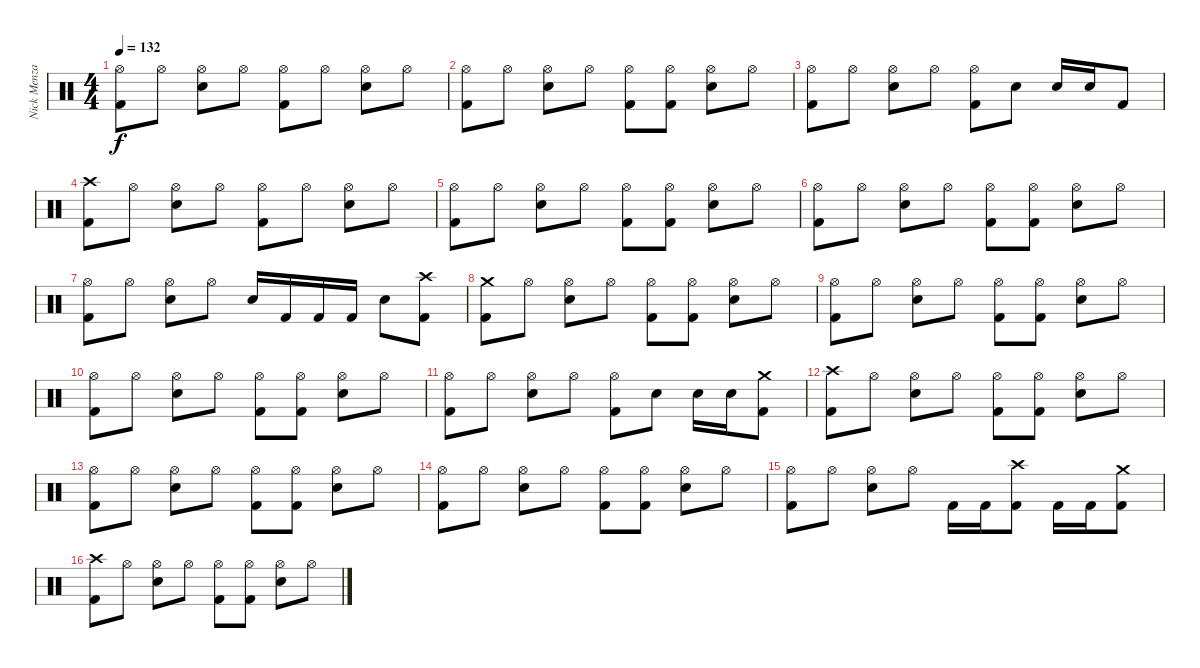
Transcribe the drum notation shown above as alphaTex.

\track ("Nick Menza (Drums)" "Nick Menza") {instrument percussion}
\staff {score}
\articulation defaults
\ts (4 4)
\tempo 132
\clef neutral
\ks c
("Hi-Hat (open)" "Kick (hit) 2").8{dy f} "Hi-Hat (open)".8 ("Hi-Hat (open)" "Snare (hit) 2").8 "Hi-Hat (open)".8 ("Hi-Hat (open)" "Kick (hit) 2").8 "Hi-Hat (open)".8 ("Hi-Hat (open)" "Snare (hit) 2").8 "Hi-Hat (open)".8 |
("Hi-Hat (open)" "Kick (hit) 2").8 "Hi-Hat (open)".8 ("Hi-Hat (open)" "Snare (hit) 2").8 "Hi-Hat (open)".8 ("Hi-Hat (open)" "Kick (hit) 2").8 ("Hi-Hat (open)" "Kick (hit) 2").8 ("Hi-Hat (open)" "Snare (hit) 2").8 "Hi-Hat (open)".8 |
("Hi-Hat (open)" "Kick (hit) 2").8 "Hi-Hat (open)".8 ("Hi-Hat (open)" "Snare (hit) 2").8 "Hi-Hat (open)".8 ("Hi-Hat (open)" "Kick (hit) 2").8 "Snare (hit) 2".8 "Snare (hit) 2".16 "Snare (hit) 2".16 "Kick (hit) 2".8 |
("Crash high (hit)" "Kick (hit) 2").8 "Hi-Hat (open)".8 ("Hi-Hat (open)" "Snare (hit) 2").8 "Hi-Hat (open)".8 ("Hi-Hat (open)" "Kick (hit) 2").8 "Hi-Hat (open)".8 ("Hi-Hat (open)" "Snare (hit) 2").8 "Hi-Hat (open)".8 |
("Hi-Hat (open)" "Kick (hit) 2").8 "Hi-Hat (open)".8 ("Hi-Hat (open)" "Snare (hit) 2").8 "Hi-Hat (open)".8 ("Hi-Hat (open)" "Kick (hit) 2").8 ("Hi-Hat (open)" "Kick (hit) 2").8 ("Hi-Hat (open)" "Snare (hit) 2").8 "Hi-Hat (open)".8 |
("Hi-Hat (open)" "Kick (hit) 2").8 "Hi-Hat (open)".8 ("Hi-Hat (open)" "Snare (hit) 2").8 "Hi-Hat (open)".8 ("Hi-Hat (open)" "Kick (hit) 2").8 ("Hi-Hat (open)" "Kick (hit) 2").8 ("Hi-Hat (open)" "Snare (hit) 2").8 "Hi-Hat (open)".8 |
("Hi-Hat (open)" "Kick (hit) 2").8 "Hi-Hat (open)".8 ("Hi-Hat (open)" "Snare (hit) 2").8 "Hi-Hat (open)".8 "Snare (hit) 2".16 "Kick (hit) 2".16 "Kick (hit) 2".16 "Kick (hit) 2".16 "Snare (hit) 2".8 ("Crash high (hit)" "Kick (hit) 2").8 |
("Crash medium (hit)" "Kick (hit) 2").8 "Hi-Hat (open)".8 ("Hi-Hat (open)" "Snare (hit) 2").8 "Hi-Hat (open)".8 ("Hi-Hat (open)" "Kick (hit) 2").8 ("Hi-Hat (open)" "Kick (hit) 2").8 ("Hi-Hat (open)" "Snare (hit) 2").8 "Hi-Hat (open)".8 |
("Hi-Hat (open)" "Kick (hit) 2").8 "Hi-Hat (open)".8 ("Hi-Hat (open)" "Snare (hit) 2").8 "Hi-Hat (open)".8 ("Hi-Hat (open)" "Kick (hit) 2").8 ("Hi-Hat (open)" "Kick (hit) 2").8 ("Hi-Hat (open)" "Snare (hit) 2").8 "Hi-Hat (open)".8 |
("Hi-Hat (open)" "Kick (hit) 2").8 "Hi-Hat (open)".8 ("Hi-Hat (open)" "Snare (hit) 2").8 "Hi-Hat (open)".8 ("Hi-Hat (open)" "Kick (hit) 2").8 ("Hi-Hat (open)" "Kick (hit) 2").8 ("Hi-Hat (open)" "Snare (hit) 2").8 "Hi-Hat (open)".8 |
("Hi-Hat (open)" "Kick (hit) 2").8 "Hi-Hat (open)".8 ("Hi-Hat (open)" "Snare (hit) 2").8 "Hi-Hat (open)".8 ("Hi-Hat (open)" "Kick (hit) 2").8 "Snare (hit) 2".8 "Snare (hit) 2".16 "Snare (hit) 2".16 ("Crash medium (hit)" "Kick (hit) 2").8 |
("Crash high (hit)" "Kick (hit) 2").8 "Hi-Hat (open)".8 ("Hi-Hat (open)" "Snare (hit) 2").8 "Hi-Hat (open)".8 ("Hi-Hat (open)" "Kick (hit) 2").8 ("Hi-Hat (open)" "Kick (hit) 2").8 ("Hi-Hat (open)" "Snare (hit) 2").8 "Hi-Hat (open)".8 |
("Hi-Hat (open)" "Kick (hit) 2").8 "Hi-Hat (open)".8 ("Hi-Hat (open)" "Snare (hit) 2").8 "Hi-Hat (open)".8 ("Hi-Hat (open)" "Kick (hit) 2").8 ("Hi-Hat (open)" "Kick (hit) 2").8 ("Hi-Hat (open)" "Snare (hit) 2").8 "Hi-Hat (open)".8 |
("Hi-Hat (open)" "Kick (hit) 2").8 "Hi-Hat (open)".8 ("Hi-Hat (open)" "Snare (hit) 2").8 "Hi-Hat (open)".8 ("Hi-Hat (open)" "Kick (hit) 2").8 ("Hi-Hat (open)" "Kick (hit) 2").8 ("Hi-Hat (open)" "Snare (hit) 2").8 "Hi-Hat (open)".8 |
("Hi-Hat (open)" "Kick (hit) 2").8 "Hi-Hat (open)".8 ("Hi-Hat (open)" "Snare (hit) 2").8 "Hi-Hat (open)".8 "Kick (hit) 2".16 "Kick (hit) 2".16 ("Crash high (hit)" "Kick (hit) 2").8 "Kick (hit) 2".16 "Kick (hit) 2".16 ("Crash medium (hit)" "Kick (hit) 2").8 |
("Crash high (hit)" "Kick (hit) 2").8 "Hi-Hat (open)".8 ("Hi-Hat (open)" "Snare (hit) 2").8 "Hi-Hat (open)".8 ("Hi-Hat (open)" "Kick (hit) 2").8 ("Hi-Hat (open)" "Kick (hit) 2").8 ("Hi-Hat (open)" "Snare (hit) 2").8 "Hi-Hat (open)".8
